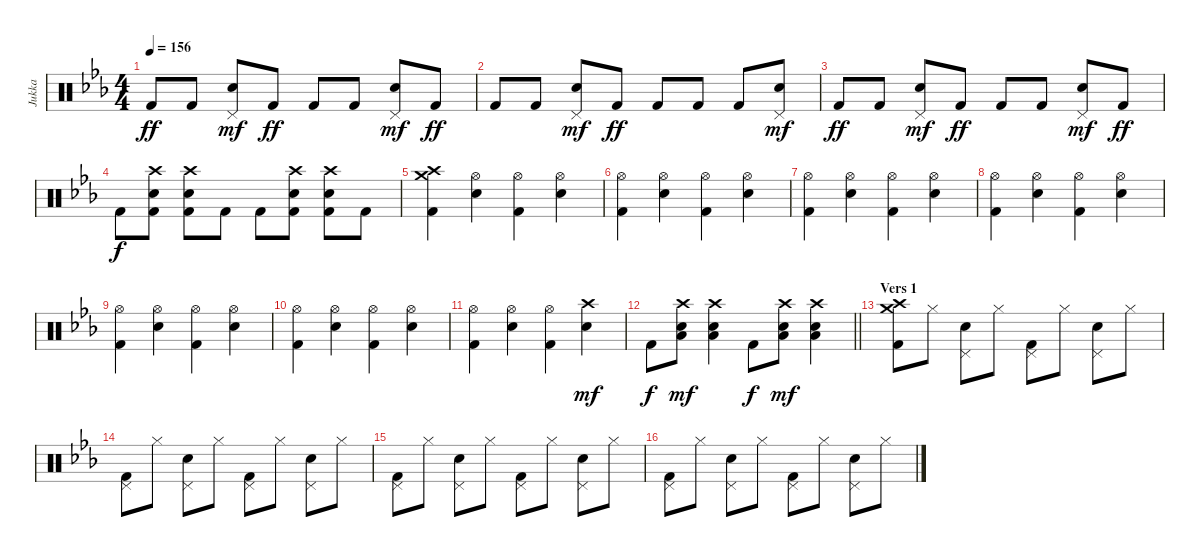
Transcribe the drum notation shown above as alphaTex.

\track ("Jukka" "Jukka") {instrument percussion}
\staff {score}
\articulation defaults
\ts (4 4)
\tempo 156
\clef neutral
\ks cminor "Kick (hit) 2".8{dy ff} "Kick (hit) 2".8
("Pedal Hi-Hat (hit)" "Snare (hit) 2").8{dy mf} "Kick (hit) 2".8{dy ff} "Kick (hit) 2".8 "Kick (hit) 2".8 ("Pedal Hi-Hat (hit)" "Snare (hit) 2").8{dy mf} "Kick (hit) 2".8{dy ff} |
"Kick (hit) 2".8 "Kick (hit) 2".8 ("Pedal Hi-Hat (hit)" "Snare (hit) 2").8{dy mf} "Kick (hit) 2".8{dy ff} "Kick (hit) 2".8 "Kick (hit) 2".8 "Kick (hit) 2".8 ("Pedal Hi-Hat (hit)" "Snare (hit) 2").8{dy mf} |
"Kick (hit) 2".8{dy ff} "Kick (hit) 2".8 ("Pedal Hi-Hat (hit)" "Snare (hit) 2").8{dy mf} "Kick (hit) 2".8{dy ff} "Kick (hit) 2".8 "Kick (hit) 2".8 ("Pedal Hi-Hat (hit)" "Snare (hit) 2").8{dy mf} "Kick (hit) 2".8{dy ff} |
"Kick (hit) 2".8{dy f} ("Crash high (hit)" "Snare (hit) 2" "Kick (hit) 2").8 ("Crash high (hit)" "Snare (hit) 2" "Kick (hit) 2").8 "Kick (hit) 2".8 "Kick (hit) 2".8 ("Crash high (hit)" "Snare (hit) 2" "Kick (hit) 2").8 ("Crash high (hit)" "Snare (hit) 2" "Kick (hit) 2").8 "Kick (hit) 2".8 |
("Crash medium (hit)" "Crash high (hit)" "Kick (hit) 2").4 ("Hi-Hat (open)" "Electric Snare (hit)").4 ("Hi-Hat (open)" "Kick (hit) 2").4 ("Hi-Hat (open)" "Electric Snare (hit)").4 |
("Hi-Hat (open)" "Kick (hit) 2").4 ("Hi-Hat (open)" "Electric Snare (hit)").4 ("Hi-Hat (open)" "Kick (hit) 2").4 ("Hi-Hat (open)" "Electric Snare (hit)").4 |
("Hi-Hat (open)" "Kick (hit) 2").4 ("Hi-Hat (open)" "Electric Snare (hit)").4 ("Hi-Hat (open)" "Kick (hit) 2").4 ("Hi-Hat (open)" "Electric Snare (hit)").4 |
("Hi-Hat (open)" "Kick (hit) 2").4 ("Hi-Hat (open)" "Electric Snare (hit)").4 ("Hi-Hat (open)" "Kick (hit) 2").4 ("Hi-Hat (open)" "Electric Snare (hit)").4 |
("Hi-Hat (open)" "Kick (hit) 2").4 ("Hi-Hat (open)" "Electric Snare (hit)").4 ("Hi-Hat (open)" "Kick (hit) 2").4 ("Hi-Hat (open)" "Electric Snare (hit)").4 |
("Hi-Hat (open)" "Kick (hit) 2").4 ("Hi-Hat (open)" "Electric Snare (hit)").4 ("Hi-Hat (open)" "Kick (hit) 2").4 ("Hi-Hat (open)" "Electric Snare (hit)").4 |
("Hi-Hat (open)" "Kick (hit) 2").4 ("Hi-Hat (open)" "Electric Snare (hit)").4 ("Hi-Hat (open)" "Kick (hit) 2").4 ("Crash high (hit)" "Electric Snare (hit)").4{dy mf} |
\barLineRight lightlight "Kick (hit) 2".8{dy f}
("Crash high (hit)" "Low Floor Tom (hit)" "Electric Snare (hit)").8{dy mf} ("Crash high (hit)" "Low Floor Tom (hit)" "Electric Snare (hit)").4 "Kick (hit) 2".8{dy f} ("Crash high (hit)" "Low Floor Tom (hit)" "Electric Snare (hit)").8{dy mf} ("Crash high (hit)" "Low Floor Tom (hit)" "Electric Snare (hit)").4 |
\section ("" "Vers 1")
("Crash medium (hit)" "Crash high (hit)" "Kick (hit) 2").8 "Hi-Hat (closed)".8 ("Pedal Hi-Hat (hit)" "Electric Snare (hit)").8 "Hi-Hat (closed)".8 ("Pedal Hi-Hat (hit)" "Kick (hit) 2").8 "Hi-Hat (closed)".8 ("Pedal Hi-Hat (hit)" "Electric Snare (hit)").8 "Hi-Hat (closed)".8 |
("Pedal Hi-Hat (hit)" "Kick (hit) 2").8 "Hi-Hat (closed)".8 ("Pedal Hi-Hat (hit)" "Electric Snare (hit)").8 "Hi-Hat (closed)".8 ("Pedal Hi-Hat (hit)" "Kick (hit) 2").8 "Hi-Hat (closed)".8 ("Pedal Hi-Hat (hit)" "Electric Snare (hit)").8 "Hi-Hat (closed)".8 |
("Pedal Hi-Hat (hit)" "Kick (hit) 2").8 "Hi-Hat (closed)".8 ("Pedal Hi-Hat (hit)" "Electric Snare (hit)").8 "Hi-Hat (closed)".8 ("Pedal Hi-Hat (hit)" "Kick (hit) 2").8 "Hi-Hat (closed)".8 ("Pedal Hi-Hat (hit)" "Electric Snare (hit)").8 "Hi-Hat (closed)".8 |
("Pedal Hi-Hat (hit)" "Kick (hit) 2").8 "Hi-Hat (closed)".8 ("Pedal Hi-Hat (hit)" "Electric Snare (hit)").8 "Hi-Hat (closed)".8 ("Pedal Hi-Hat (hit)" "Kick (hit) 2").8 "Hi-Hat (closed)".8 ("Pedal Hi-Hat (hit)" "Electric Snare (hit)").8 "Hi-Hat (closed)".8
